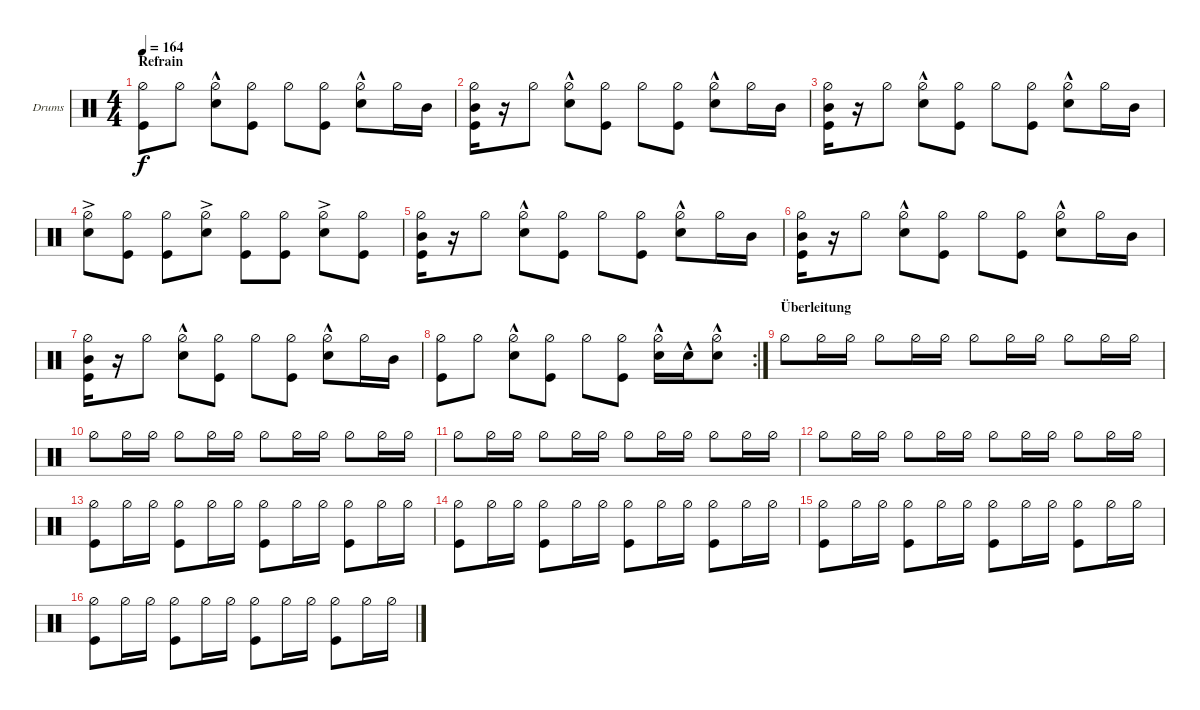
\defaultSystemsLayout 4
\bracketExtendMode groupsimilarinstruments
\firstSystemTrackNameOrientation horizontal
\otherSystemsTrackNameOrientation horizontal
\track ("Drumkit" "Drums") {instrument percussion}
\staff {score}
\articulation defaults
\ts (4 4)
\section ("" "Refrain")
\tempo 164
\clef neutral
\ks c
("Kick (hit)" "Hi-Hat (half)").8{dy f} "Hi-Hat (half)".8 ("Snare (hit) 2"{hac} "Hi-Hat (half)").8 ("Kick (hit)" "Hi-Hat (half)").8 "Hi-Hat (half)".8 ("Kick (hit)" "Hi-Hat (half)").8 ("Snare (hit) 2"{hac} "Hi-Hat (half)").8 "Hi-Hat (half)".16 "Mid Tom (hit)".16 |
("Mid Tom (hit)" "Hi-Hat (half)" "Kick (hit)").16 r.16 "Hi-Hat (half)".8 ("Snare (hit) 2"{hac} "Hi-Hat (half)").8 ("Kick (hit)" "Hi-Hat (half)").8 "Hi-Hat (half)".8 ("Kick (hit)" "Hi-Hat (half)").8 ("Snare (hit) 2"{hac} "Hi-Hat (half)").8 "Hi-Hat (half)".16 "Mid Tom (hit)".16 |
("Mid Tom (hit)" "Hi-Hat (half)" "Kick (hit)").16 r.16 "Hi-Hat (half)".8 ("Snare (hit) 2"{hac} "Hi-Hat (half)").8 ("Kick (hit)" "Hi-Hat (half)").8 "Hi-Hat (half)".8 ("Kick (hit)" "Hi-Hat (half)").8 ("Snare (hit) 2"{hac} "Hi-Hat (half)").8 "Hi-Hat (half)".16 "Mid Tom (hit)".16 |
("Snare (hit) 2"{ac} "Hi-Hat (half)").8 ("Kick (hit)" "Hi-Hat (half)").8 ("Kick (hit)" "Hi-Hat (half)").8 ("Snare (hit) 2"{ac} "Hi-Hat (half)").8 ("Kick (hit)" "Hi-Hat (half)").8 ("Kick (hit)" "Hi-Hat (half)").8 ("Snare (hit) 2"{ac} "Hi-Hat (half)").8 ("Kick (hit)" "Hi-Hat (half)").8 |
("Mid Tom (hit)" "Hi-Hat (half)" "Kick (hit)").16 r.16 "Hi-Hat (half)".8 ("Snare (hit) 2"{hac} "Hi-Hat (half)").8 ("Kick (hit)" "Hi-Hat (half)").8 "Hi-Hat (half)".8 ("Kick (hit)" "Hi-Hat (half)").8 ("Snare (hit) 2"{hac} "Hi-Hat (half)").8 "Hi-Hat (half)".16 "Mid Tom (hit)".16 |
("Mid Tom (hit)" "Hi-Hat (half)" "Kick (hit)").16 r.16 "Hi-Hat (half)".8 ("Snare (hit) 2"{hac} "Hi-Hat (half)").8 ("Kick (hit)" "Hi-Hat (half)").8 "Hi-Hat (half)".8 ("Kick (hit)" "Hi-Hat (half)").8 ("Snare (hit) 2"{hac} "Hi-Hat (half)").8 "Hi-Hat (half)".16 "Mid Tom (hit)".16 |
("Mid Tom (hit)" "Hi-Hat (half)" "Kick (hit)").16 r.16 "Hi-Hat (half)".8 ("Snare (hit) 2"{hac} "Hi-Hat (half)").8 ("Kick (hit)" "Hi-Hat (half)").8 "Hi-Hat (half)".8 ("Kick (hit)" "Hi-Hat (half)").8 ("Snare (hit) 2"{hac} "Hi-Hat (half)").8 "Hi-Hat (half)".16 "Mid Tom (hit)".16 |
\rc 2
("Kick (hit)" "Hi-Hat (half)").8 "Hi-Hat (half)".8 ("Snare (hit) 2"{hac} "Hi-Hat (half)").8 ("Kick (hit)" "Hi-Hat (half)").8 "Hi-Hat (half)".8 ("Hi-Hat (half)" "Kick (hit)").8 ("Snare (hit) 2"{hac} "Hi-Hat (half)").16 "Snare (hit) 2"{hac}.16 ("Snare (hit) 2"{hac} "Hi-Hat (half)").8 |
\section ("" "Überleitung")
"Hi-Hat (half)".8 "Hi-Hat (half)".16 "Hi-Hat (half)".16 "Hi-Hat (half)".8 "Hi-Hat (half)".16 "Hi-Hat (half)".16 "Hi-Hat (half)".8 "Hi-Hat (half)".16 "Hi-Hat (half)".16 "Hi-Hat (half)".8 "Hi-Hat (half)".16 "Hi-Hat (half)".16 |
"Hi-Hat (half)".8 "Hi-Hat (half)".16 "Hi-Hat (half)".16 "Hi-Hat (half)".8 "Hi-Hat (half)".16 "Hi-Hat (half)".16 "Hi-Hat (half)".8 "Hi-Hat (half)".16 "Hi-Hat (half)".16 "Hi-Hat (half)".8 "Hi-Hat (half)".16 "Hi-Hat (half)".16 |
"Hi-Hat (half)".8 "Hi-Hat (half)".16 "Hi-Hat (half)".16 "Hi-Hat (half)".8 "Hi-Hat (half)".16 "Hi-Hat (half)".16 "Hi-Hat (half)".8 "Hi-Hat (half)".16 "Hi-Hat (half)".16 "Hi-Hat (half)".8 "Hi-Hat (half)".16 "Hi-Hat (half)".16 |
"Hi-Hat (half)".8 "Hi-Hat (half)".16 "Hi-Hat (half)".16 "Hi-Hat (half)".8 "Hi-Hat (half)".16 "Hi-Hat (half)".16 "Hi-Hat (half)".8 "Hi-Hat (half)".16 "Hi-Hat (half)".16 "Hi-Hat (half)".8 "Hi-Hat (half)".16 "Hi-Hat (half)".16 |
("Hi-Hat (half)" "Kick (hit)").8 "Hi-Hat (half)".16 "Hi-Hat (half)".16 ("Hi-Hat (half)" "Kick (hit)").8 "Hi-Hat (half)".16 "Hi-Hat (half)".16 ("Hi-Hat (half)" "Kick (hit)").8 "Hi-Hat (half)".16 "Hi-Hat (half)".16 ("Hi-Hat (half)" "Kick (hit)").8 "Hi-Hat (half)".16 "Hi-Hat (half)".16 |
("Hi-Hat (half)" "Kick (hit)").8 "Hi-Hat (half)".16 "Hi-Hat (half)".16 ("Hi-Hat (half)" "Kick (hit)").8 "Hi-Hat (half)".16 "Hi-Hat (half)".16 ("Hi-Hat (half)" "Kick (hit)").8 "Hi-Hat (half)".16 "Hi-Hat (half)".16 ("Hi-Hat (half)" "Kick (hit)").8 "Hi-Hat (half)".16 "Hi-Hat (half)".16 |
("Hi-Hat (half)" "Kick (hit)").8 "Hi-Hat (half)".16 "Hi-Hat (half)".16 ("Hi-Hat (half)" "Kick (hit)").8 "Hi-Hat (half)".16 "Hi-Hat (half)".16 ("Hi-Hat (half)" "Kick (hit)").8 "Hi-Hat (half)".16 "Hi-Hat (half)".16 ("Hi-Hat (half)" "Kick (hit)").8 "Hi-Hat (half)".16 "Hi-Hat (half)".16 |
("Hi-Hat (half)" "Kick (hit)").8 "Hi-Hat (half)".16 "Hi-Hat (half)".16 ("Hi-Hat (half)" "Kick (hit)").8 "Hi-Hat (half)".16 "Hi-Hat (half)".16 ("Hi-Hat (half)" "Kick (hit)").8 "Hi-Hat (half)".16 "Hi-Hat (half)".16 ("Hi-Hat (half)" "Kick (hit)").8 "Hi-Hat (half)".16 "Hi-Hat (half)".16
